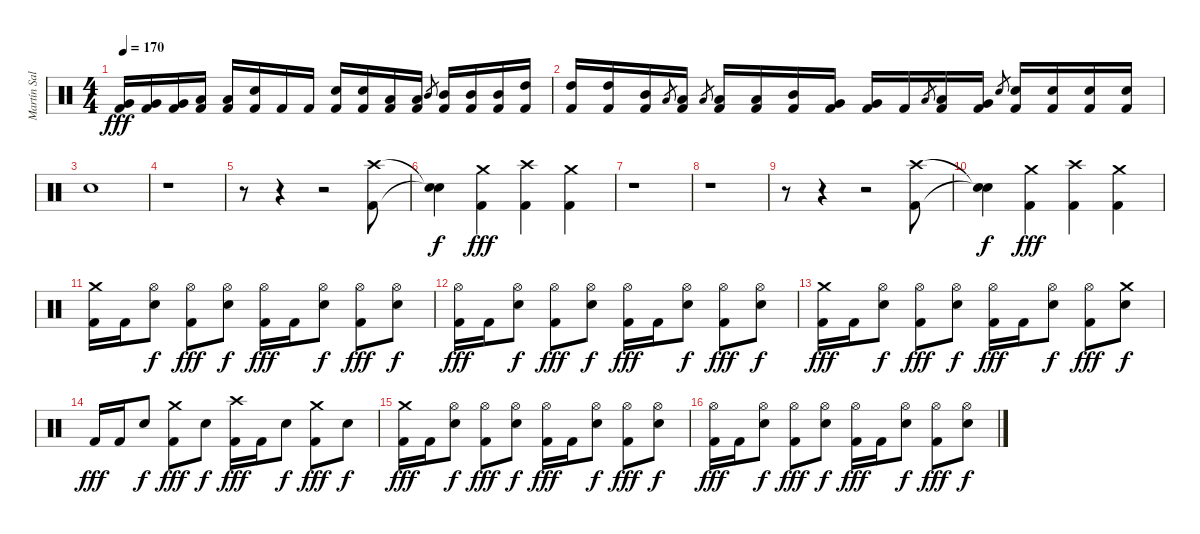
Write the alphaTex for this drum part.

\track ("Martín Salariato" "Martín Sal") {instrument percussion}
\staff {score}
\articulation defaults
\ts (4 4)
\tempo 170
\clef neutral
\ks c
("Very Low Tom (hit)" "Kick (hit) 2").16{dy fff} ("Very Low Tom (hit)" "Kick (hit) 2").16 ("Very Low Tom (hit)" "Kick (hit) 2").16 ("Low Tom (hit)" "Kick (hit) 2").16 ("Low Tom (hit)" "Kick (hit) 2").16 ("Snare (hit) 2" "Kick (hit) 2").16 "Kick (hit) 2".16 "Kick (hit) 2".16 ("Snare (hit) 2" "Kick (hit) 2").16 ("Snare (hit) 2" "Kick (hit) 2").16 ("Low Tom (hit)" "Kick (hit) 2").16 ("Low Tom (hit)" "Kick (hit) 2").16 "Mid Tom (hit)".8{gr} ("Mid Tom (hit)" "Kick (hit) 2").16 ("Mid Tom (hit)" "Kick (hit) 2").16 ("Mid Tom (hit)" "Kick (hit) 2").16 ("High Tom (hit)" "Kick (hit) 2").16 |
("High Tom (hit)" "Kick (hit) 2").16 ("High Tom (hit)" "Kick (hit) 2").16 ("Mid Tom (hit)" "Kick (hit) 2").16 "Low Tom (hit)".8{gr} ("Low Tom (hit)" "Kick (hit) 2").16 "Low Tom (hit)".8{gr} ("Low Tom (hit)" "Kick (hit) 2").16 ("Low Tom (hit)" "Kick (hit) 2").16 ("Mid Tom (hit)" "Kick (hit) 2").16 ("Very Low Tom (hit)" "Kick (hit) 2").16 ("Very Low Tom (hit)" "Kick (hit) 2").16 "Kick (hit) 2".16 "Low Tom (hit)".8{gr} ("Low Tom (hit)" "Kick (hit) 2").16 ("Very Low Tom (hit)" "Kick (hit) 2").16 "Snare (hit) 2".8{gr} ("Snare (hit) 2" "Kick (hit) 2").16 ("Snare (hit) 2" "Kick (hit) 2").16 ("Snare (hit) 2" "Kick (hit) 2").16 ("Snare (hit) 2" "Kick (hit) 2").16 |
"Snare (hit) 2".1 |
r.1 |
r.8 r.4 r.2 ("Crash high (hit)" "Kick (hit) 2").8 |
("Snare (hit)"{t} "Snare (hit)"{t}).4{dy f} ("Crash medium (hit)" "Kick (hit) 2").4{dy fff} ("Crash high (hit)" "Kick (hit) 2").4 ("Crash medium (hit)" "Kick (hit) 2").4 |
r.1 |
r.1 |
r.8 r.4 r.2 ("Crash high (hit)" "Kick (hit) 2").8 |
("Snare (hit)"{t} "Snare (hit)"{t}).4{dy f} ("Crash medium (hit)" "Kick (hit) 2").4{dy fff} ("Crash high (hit)" "Kick (hit) 2").4 ("Crash medium (hit)" "Kick (hit) 2").4 |
("Crash medium (hit)" "Kick (hit) 2").16 "Kick (hit) 2".16 ("Hi-Hat (open)" "Snare (hit) 2").8{dy f} ("Hi-Hat (open)" "Kick (hit) 2").8{dy fff} ("Hi-Hat (open)" "Snare (hit) 2").8{dy f} ("Hi-Hat (open)" "Kick (hit) 2").16{dy fff} "Kick (hit) 2".16 ("Hi-Hat (open)" "Snare (hit) 2").8{dy f} ("Hi-Hat (open)" "Kick (hit) 2").8{dy fff} ("Hi-Hat (open)" "Snare (hit) 2").8{dy f} |
("Hi-Hat (open)" "Kick (hit) 2").16{dy fff} "Kick (hit) 2".16 ("Hi-Hat (open)" "Snare (hit) 2").8{dy f} ("Hi-Hat (open)" "Kick (hit) 2").8{dy fff} ("Hi-Hat (open)" "Snare (hit) 2").8{dy f} ("Hi-Hat (open)" "Kick (hit) 2").16{dy fff} "Kick (hit) 2".16 ("Hi-Hat (open)" "Snare (hit) 2").8{dy f} ("Hi-Hat (open)" "Kick (hit) 2").8{dy fff} ("Hi-Hat (open)" "Snare (hit) 2").8{dy f} |
("Crash medium (hit)" "Kick (hit) 2").16{dy fff} "Kick (hit) 2".16 ("Hi-Hat (open)" "Snare (hit) 2").8{dy f} ("Hi-Hat (open)" "Kick (hit) 2").8{dy fff} ("Hi-Hat (open)" "Snare (hit) 2").8{dy f} ("Hi-Hat (open)" "Kick (hit) 2").16{dy fff} "Kick (hit) 2".16 ("Hi-Hat (open)" "Snare (hit) 2").8{dy f} ("Hi-Hat (open)" "Kick (hit) 2").8{dy fff} ("Crash medium (hit)" "Snare (hit) 2").8{dy f} |
"Kick (hit) 2".16{dy fff} "Kick (hit) 2".16 "Snare (hit) 2".8{dy f} ("Crash medium (hit)" "Kick (hit) 2").8{dy fff} "Snare (hit) 2".8{dy f} ("Crash high (hit)" "Kick (hit) 2").16{dy fff} "Kick (hit) 2".16 "Snare (hit) 2".8{dy f} ("Crash medium (hit)" "Kick (hit) 2").8{dy fff} "Snare (hit) 2".8{dy f} |
("Crash medium (hit)" "Kick (hit) 2").16{dy fff} "Kick (hit) 2".16 ("Hi-Hat (open)" "Snare (hit) 2").8{dy f} ("Hi-Hat (open)" "Kick (hit) 2").8{dy fff} ("Hi-Hat (open)" "Snare (hit) 2").8{dy f} ("Hi-Hat (open)" "Kick (hit) 2").16{dy fff} "Kick (hit) 2".16 ("Hi-Hat (open)" "Snare (hit) 2").8{dy f} ("Hi-Hat (open)" "Kick (hit) 2").8{dy fff} ("Hi-Hat (open)" "Snare (hit) 2").8{dy f} |
("Hi-Hat (open)" "Kick (hit) 2").16{dy fff} "Kick (hit) 2".16 ("Hi-Hat (open)" "Snare (hit) 2").8{dy f} ("Hi-Hat (open)" "Kick (hit) 2").8{dy fff} ("Hi-Hat (open)" "Snare (hit) 2").8{dy f} ("Hi-Hat (open)" "Kick (hit) 2").16{dy fff} "Kick (hit) 2".16 ("Hi-Hat (open)" "Snare (hit) 2").8{dy f} ("Hi-Hat (open)" "Kick (hit) 2").8{dy fff} ("Hi-Hat (open)" "Snare (hit) 2").8{dy f}
